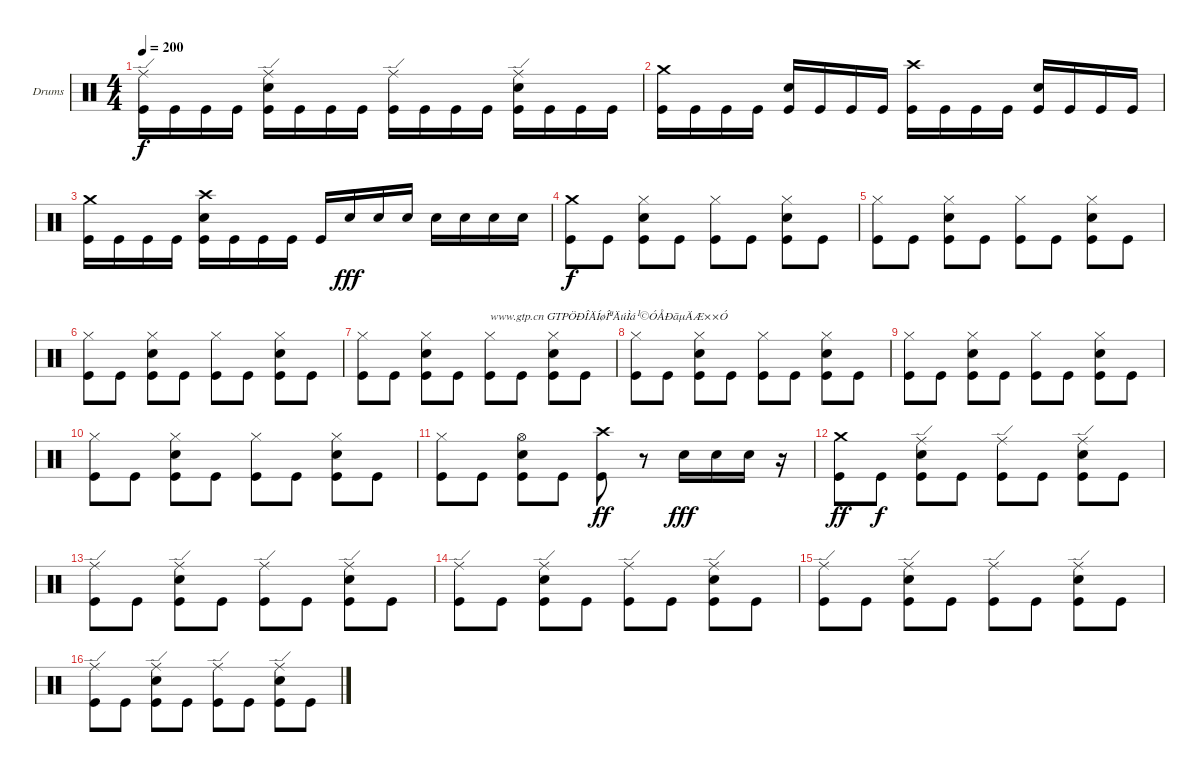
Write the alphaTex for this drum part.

\bracketExtendMode groupsimilarinstruments
\firstSystemTrackNameOrientation horizontal
\otherSystemsTrackNameOrientation horizontal
\track ("Drumkit" "Drums") {instrument percussion}
\staff {score}
\articulation defaults
\ts (4 4)
\tempo 200
\clef neutral
\ks c
("Ride (edge)" "Kick (hit)").16{dy f} "Kick (hit)".16 "Kick (hit)".16 "Kick (hit)".16 ("Ride (edge)" "Snare (hit) 2" "Kick (hit)").16 "Kick (hit)".16 "Kick (hit)".16 "Kick (hit)".16 ("Ride (edge)" "Kick (hit)").16 "Kick (hit)".16 "Kick (hit)".16 "Kick (hit)".16 ("Ride (edge)" "Snare (hit) 2" "Kick (hit)").16 "Kick (hit)".16 "Kick (hit)".16 "Kick (hit)".16 |
("Crash medium (hit)" "Kick (hit)").16 "Kick (hit)".16 "Kick (hit)".16 "Kick (hit)".16 ("Snare (hit) 2" "Kick (hit)").16 "Kick (hit)".16 "Kick (hit)".16 "Kick (hit)".16 ("Crash high (hit)" "Kick (hit)").16 "Kick (hit)".16 "Kick (hit)".16 "Kick (hit)".16 ("Snare (hit) 2" "Kick (hit)").16 "Kick (hit)".16 "Kick (hit)".16 "Kick (hit)".16 |
("Crash medium (hit)" "Kick (hit)").16 "Kick (hit)".16 "Kick (hit)".16 "Kick (hit)".16 ("Crash high (hit)" "Snare (hit) 2" "Kick (hit)").16 "Kick (hit)".16 "Kick (hit)".16 "Kick (hit)".16 "Kick (hit)".16 "Snare (hit) 2".16{dy fff} "Snare (hit) 2".16 "Snare (hit) 2".16 "Snare (hit) 2".16 "Snare (hit) 2".16 "Snare (hit) 2".16 "Snare (hit) 2".16 |
("Crash medium (hit)" "Kick (hit)").8{dy f} "Kick (hit)".8 ("Hi-Hat (closed)" "Snare (hit) 2" "Kick (hit)").8 "Kick (hit)".8 ("Hi-Hat (closed)" "Kick (hit)").8 "Kick (hit)".8 ("Hi-Hat (closed)" "Snare (hit) 2" "Kick (hit)").8 "Kick (hit)".8 |
("Hi-Hat (closed)" "Kick (hit)").8 "Kick (hit)".8 ("Hi-Hat (closed)" "Snare (hit) 2" "Kick (hit)").8 "Kick (hit)".8 ("Hi-Hat (closed)" "Kick (hit)").8 "Kick (hit)".8 ("Hi-Hat (closed)" "Snare (hit) 2" "Kick (hit)").8 "Kick (hit)".8 |
("Hi-Hat (closed)" "Kick (hit)").8 "Kick (hit)".8 ("Hi-Hat (closed)" "Snare (hit) 2" "Kick (hit)").8 "Kick (hit)".8 ("Hi-Hat (closed)" "Kick (hit)").8 "Kick (hit)".8 ("Hi-Hat (closed)" "Snare (hit) 2" "Kick (hit)").8 "Kick (hit)".8 |
("Hi-Hat (closed)" "Kick (hit)").8 "Kick (hit)".8 ("Hi-Hat (closed)" "Snare (hit) 2" "Kick (hit)").8 "Kick (hit)".8 ("Hi-Hat (closed)" "Kick (hit)").8{txt "www.gtp.cn GTPÖÐÎÄÍøÎªÄúÌá¹©ÓÅÐãµÄÆ××Ó"} "Kick (hit)".8 ("Hi-Hat (closed)" "Snare (hit) 2" "Kick (hit)").8 "Kick (hit)".8 |
("Hi-Hat (closed)" "Kick (hit)").8 "Kick (hit)".8 ("Hi-Hat (closed)" "Snare (hit) 2" "Kick (hit)").8 "Kick (hit)".8 ("Hi-Hat (closed)" "Kick (hit)").8 "Kick (hit)".8 ("Hi-Hat (closed)" "Snare (hit) 2" "Kick (hit)").8 "Kick (hit)".8 |
("Hi-Hat (closed)" "Kick (hit)").8 "Kick (hit)".8 ("Hi-Hat (closed)" "Snare (hit) 2" "Kick (hit)").8 "Kick (hit)".8 ("Hi-Hat (closed)" "Kick (hit)").8 "Kick (hit)".8 ("Hi-Hat (closed)" "Snare (hit) 2" "Kick (hit)").8 "Kick (hit)".8 |
("Hi-Hat (closed)" "Kick (hit)").8 "Kick (hit)".8 ("Hi-Hat (closed)" "Snare (hit) 2" "Kick (hit)").8 "Kick (hit)".8 ("Hi-Hat (closed)" "Kick (hit)").8 "Kick (hit)".8 ("Hi-Hat (closed)" "Snare (hit) 2" "Kick (hit)").8 "Kick (hit)".8 |
("Hi-Hat (closed)" "Kick (hit)").8 "Kick (hit)".8 ("Hi-Hat (open)" "Snare (hit) 2" "Kick (hit)").8 "Kick (hit)".8 ("Crash high (hit)" "Kick (hit)").8{dy ff} r.8 "Snare (hit) 2".16{dy fff} "Snare (hit) 2".16 "Snare (hit) 2".16 r.16 |
("Crash medium (hit)" "Kick (hit)").8{dy ff} "Kick (hit)".8{dy f} ("Ride (edge)" "Snare (hit) 2" "Kick (hit)").8 "Kick (hit)".8 ("Ride (edge)" "Kick (hit)").8 "Kick (hit)".8 ("Ride (edge)" "Snare (hit) 2" "Kick (hit)").8 "Kick (hit)".8 |
("Ride (edge)" "Kick (hit)").8 "Kick (hit)".8 ("Ride (edge)" "Snare (hit) 2" "Kick (hit)").8 "Kick (hit)".8 ("Ride (edge)" "Kick (hit)").8 "Kick (hit)".8 ("Ride (edge)" "Snare (hit) 2" "Kick (hit)").8 "Kick (hit)".8 |
("Ride (edge)" "Kick (hit)").8 "Kick (hit)".8 ("Ride (edge)" "Snare (hit) 2" "Kick (hit)").8 "Kick (hit)".8 ("Ride (edge)" "Kick (hit)").8 "Kick (hit)".8 ("Ride (edge)" "Snare (hit) 2" "Kick (hit)").8 "Kick (hit)".8 |
("Ride (edge)" "Kick (hit)").8 "Kick (hit)".8 ("Ride (edge)" "Snare (hit) 2" "Kick (hit)").8 "Kick (hit)".8 ("Ride (edge)" "Kick (hit)").8 "Kick (hit)".8 ("Ride (edge)" "Snare (hit) 2" "Kick (hit)").8 "Kick (hit)".8 |
("Ride (edge)" "Kick (hit)").8 "Kick (hit)".8 ("Ride (edge)" "Snare (hit) 2" "Kick (hit)").8 "Kick (hit)".8 ("Ride (edge)" "Kick (hit)").8 "Kick (hit)".8 ("Ride (edge)" "Snare (hit) 2" "Kick (hit)").8 "Kick (hit)".8
